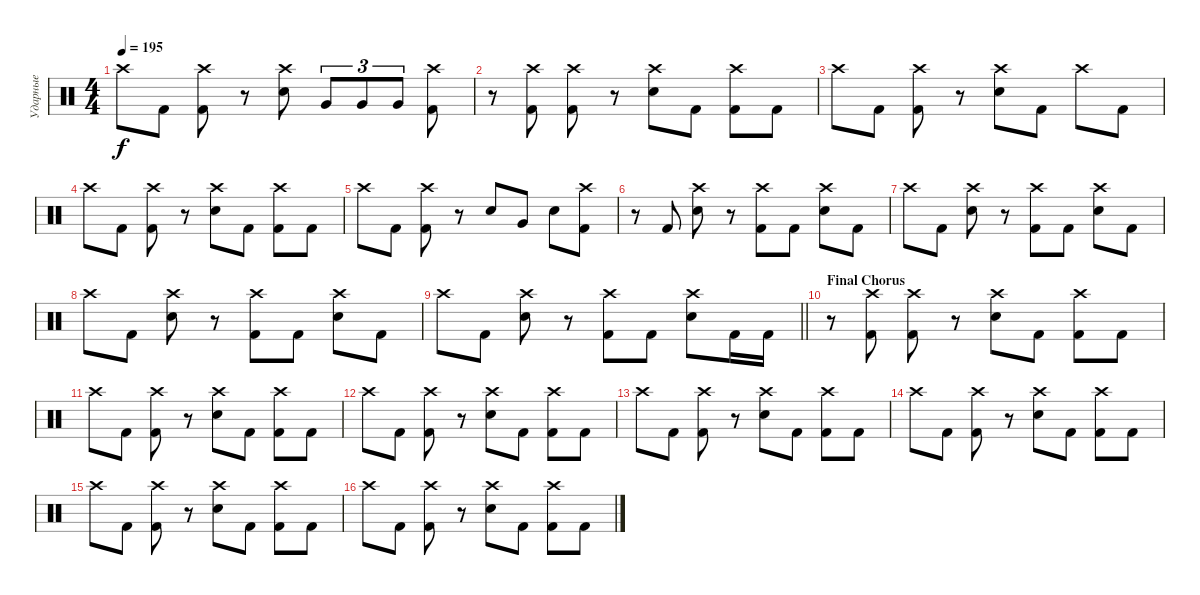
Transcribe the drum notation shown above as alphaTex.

\track ("Ударные" "Ударные") {instrument percussion}
\staff {score}
\articulation defaults
\ts (4 4)
\tempo 195
\clef neutral
\ks c "Crash high (hit)".8{dy f} "Kick (hit) 2".8
("Crash high (hit)" "Kick (hit) 2").8 r.8 ("Crash high (hit)" "Electric Snare (hit)").8 "Very Low Tom (hit)".8{tu (3 2)} "Very Low Tom (hit)".8{tu (3 2)} "Very Low Tom (hit)".8{tu (3 2)} ("Crash high (hit)" "Kick (hit) 2").8 |
r.8 ("Crash high (hit)" "Kick (hit) 2").8 ("Crash high (hit)" "Kick (hit) 2").8 r.8 ("Crash high (hit)" "Electric Snare (hit)").8 "Kick (hit) 2".8 ("Crash high (hit)" "Kick (hit) 2").8 "Kick (hit) 2".8 |
"Crash high (hit)".8 "Kick (hit) 2".8 ("Crash high (hit)" "Kick (hit) 2").8 r.8 ("Crash high (hit)" "Electric Snare (hit)").8 "Kick (hit) 2".8 "Crash high (hit)".8 "Kick (hit) 2".8 |
"Crash high (hit)".8 "Kick (hit) 2".8 ("Crash high (hit)" "Kick (hit) 2").8 r.8 ("Crash high (hit)" "Electric Snare (hit)").8 "Kick (hit) 2".8 ("Crash high (hit)" "Kick (hit) 2").8 "Kick (hit) 2".8 |
"Crash high (hit)".8 "Kick (hit) 2".8 ("Crash high (hit)" "Kick (hit) 2").8 r.8 "Electric Snare (hit)".8 "Very Low Tom (hit)".8 "Electric Snare (hit)".8 ("Crash high (hit)" "Kick (hit) 2").8 |
r.8 "Kick (hit) 2".8 ("Crash high (hit)" "Electric Snare (hit)").8 r.8 ("Crash high (hit)" "Kick (hit) 2").8 "Kick (hit) 2".8 ("Crash high (hit)" "Electric Snare (hit)").8 "Kick (hit) 2".8 |
"Crash high (hit)".8 "Kick (hit) 2".8 ("Crash high (hit)" "Electric Snare (hit)").8 r.8 ("Crash high (hit)" "Kick (hit) 2").8 "Kick (hit) 2".8 ("Crash high (hit)" "Electric Snare (hit)").8 "Kick (hit) 2".8 |
"Crash high (hit)".8 "Kick (hit) 2".8 ("Crash high (hit)" "Electric Snare (hit)").8 r.8 ("Crash high (hit)" "Kick (hit) 2").8 "Kick (hit) 2".8 ("Crash high (hit)" "Electric Snare (hit)").8 "Kick (hit) 2".8 |
\barLineRight lightlight "Crash high (hit)".8 "Kick (hit) 2".8
("Crash high (hit)" "Electric Snare (hit)").8 r.8 ("Crash high (hit)" "Kick (hit) 2").8 "Kick (hit) 2".8 ("Crash high (hit)" "Electric Snare (hit)").8 "Kick (hit) 2".16 "Kick (hit) 2".16 |
\section ("" "Final Chorus")
r.8 ("Crash high (hit)" "Kick (hit) 2").8 ("Crash high (hit)" "Kick (hit) 2").8 r.8 ("Crash high (hit)" "Electric Snare (hit)").8 "Kick (hit) 2".8 ("Crash high (hit)" "Kick (hit) 2").8 "Kick (hit) 2".8 |
"Crash high (hit)".8 "Kick (hit) 2".8 ("Crash high (hit)" "Kick (hit) 2").8 r.8 ("Crash high (hit)" "Electric Snare (hit)").8 "Kick (hit) 2".8 ("Crash high (hit)" "Kick (hit) 2").8 "Kick (hit) 2".8 |
"Crash high (hit)".8 "Kick (hit) 2".8 ("Crash high (hit)" "Kick (hit) 2").8 r.8 ("Crash high (hit)" "Electric Snare (hit)").8 "Kick (hit) 2".8 ("Crash high (hit)" "Kick (hit) 2").8 "Kick (hit) 2".8 |
"Crash high (hit)".8 "Kick (hit) 2".8 ("Crash high (hit)" "Kick (hit) 2").8 r.8 ("Crash high (hit)" "Electric Snare (hit)").8 "Kick (hit) 2".8 ("Crash high (hit)" "Kick (hit) 2").8 "Kick (hit) 2".8 |
"Crash high (hit)".8 "Kick (hit) 2".8 ("Crash high (hit)" "Kick (hit) 2").8 r.8 ("Crash high (hit)" "Electric Snare (hit)").8 "Kick (hit) 2".8 ("Crash high (hit)" "Kick (hit) 2").8 "Kick (hit) 2".8 |
"Crash high (hit)".8 "Kick (hit) 2".8 ("Crash high (hit)" "Kick (hit) 2").8 r.8 ("Crash high (hit)" "Electric Snare (hit)").8 "Kick (hit) 2".8 ("Crash high (hit)" "Kick (hit) 2").8 "Kick (hit) 2".8 |
"Crash high (hit)".8 "Kick (hit) 2".8 ("Crash high (hit)" "Kick (hit) 2").8 r.8 ("Crash high (hit)" "Electric Snare (hit)").8 "Kick (hit) 2".8 ("Crash high (hit)" "Kick (hit) 2").8 "Kick (hit) 2".8
